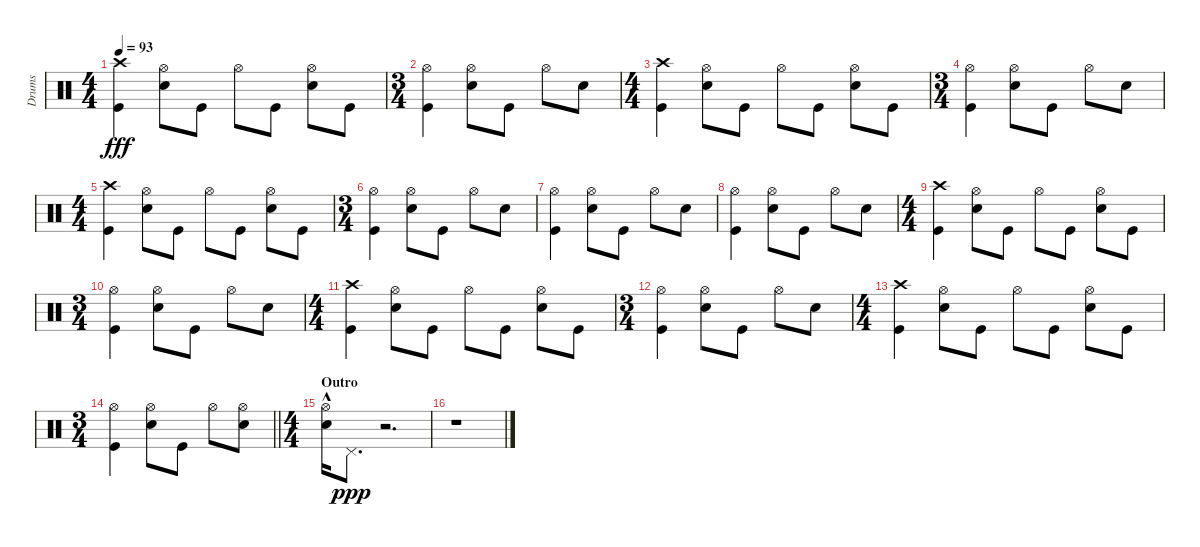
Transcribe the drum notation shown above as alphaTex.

\track ("Drums" "Drums") {instrument percussion}
\staff {score}
\articulation defaults
\ts (4 4)
\tempo 93
\clef neutral
\ks c
("Crash high (hit)" "Kick (hit)").4{dy fff} ("Hi-Hat (open)" "Snare (hit) 2").8 "Kick (hit)".8 "Hi-Hat (open)".8 "Kick (hit)".8 ("Hi-Hat (open)" "Snare (hit) 2").8 "Kick (hit)".8 |
\ts (3 4)
("Hi-Hat (open)" "Kick (hit)").4 ("Hi-Hat (open)" "Snare (hit) 2").8 "Kick (hit)".8 "Hi-Hat (open)".8 "Snare (hit) 2".8 |
\ts (4 4)
("Crash high (hit)" "Kick (hit)").4 ("Hi-Hat (open)" "Snare (hit) 2").8 "Kick (hit)".8 "Hi-Hat (open)".8 "Kick (hit)".8 ("Hi-Hat (open)" "Snare (hit) 2").8 "Kick (hit)".8 |
\ts (3 4)
("Hi-Hat (open)" "Kick (hit)").4 ("Hi-Hat (open)" "Snare (hit) 2").8 "Kick (hit)".8 "Hi-Hat (open)".8 "Snare (hit) 2".8 |
\ts (4 4)
("Crash high (hit)" "Kick (hit)").4 ("Hi-Hat (open)" "Snare (hit) 2").8 "Kick (hit)".8 "Hi-Hat (open)".8 "Kick (hit)".8 ("Hi-Hat (open)" "Snare (hit) 2").8 "Kick (hit)".8 |
\ts (3 4)
("Hi-Hat (open)" "Kick (hit)").4 ("Hi-Hat (open)" "Snare (hit) 2").8 "Kick (hit)".8 "Hi-Hat (open)".8 "Snare (hit) 2".8 |
("Hi-Hat (open)" "Kick (hit)").4 ("Hi-Hat (open)" "Snare (hit) 2").8 "Kick (hit)".8 "Hi-Hat (open)".8 "Snare (hit) 2".8 |
("Hi-Hat (open)" "Kick (hit)").4 ("Hi-Hat (open)" "Snare (hit) 2").8 "Kick (hit)".8 "Hi-Hat (open)".8 "Snare (hit) 2".8 |
\ts (4 4)
("Crash high (hit)" "Kick (hit)").4 ("Hi-Hat (open)" "Snare (hit) 2").8 "Kick (hit)".8 "Hi-Hat (open)".8 "Kick (hit)".8 ("Hi-Hat (open)" "Snare (hit) 2").8 "Kick (hit)".8 |
\ts (3 4)
("Hi-Hat (open)" "Kick (hit)").4 ("Hi-Hat (open)" "Snare (hit) 2").8 "Kick (hit)".8 "Hi-Hat (open)".8 "Snare (hit) 2".8 |
\ts (4 4)
("Crash high (hit)" "Kick (hit)").4 ("Hi-Hat (open)" "Snare (hit) 2").8 "Kick (hit)".8 "Hi-Hat (open)".8 "Kick (hit)".8 ("Hi-Hat (open)" "Snare (hit) 2").8 "Kick (hit)".8 |
\ts (3 4)
("Hi-Hat (open)" "Kick (hit)").4 ("Hi-Hat (open)" "Snare (hit) 2").8 "Kick (hit)".8 "Hi-Hat (open)".8 "Snare (hit) 2".8 |
\ts (4 4)
("Crash high (hit)" "Kick (hit)").4 ("Hi-Hat (open)" "Snare (hit) 2").8 "Kick (hit)".8 "Hi-Hat (open)".8 "Kick (hit)".8 ("Hi-Hat (open)" "Snare (hit) 2").8 "Kick (hit)".8 |
\ts (3 4)
\barLineRight lightlight
("Hi-Hat (open)" "Kick (hit)").4 ("Hi-Hat (open)" "Snare (hit) 2").8 "Kick (hit)".8 "Hi-Hat (open)".8 ("Hi-Hat (open)" "Snare (hit) 2").8 |
\ts (4 4)
\section ("" "Outro")
("Hi-Hat (open)"{hac} "Snare (hit) 2").16 "Pedal Hi-Hat (hit)".8{d dy ppp} r.2{d} |
r.1
